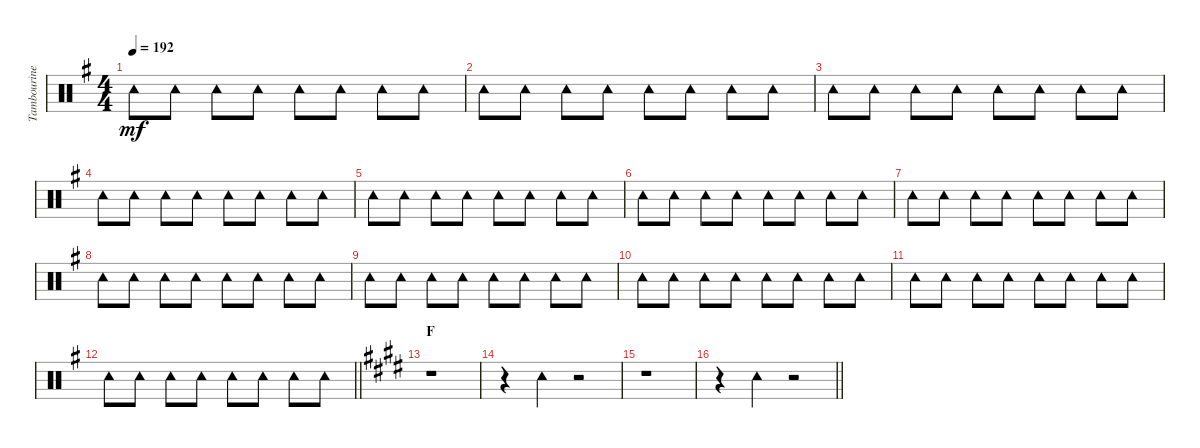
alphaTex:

\track ("Tambourine" "Tambourine") {instrument percussion}
\staff {score}
\articulation defaults
\ts (4 4)
\tempo 192
\clef neutral
\ks g "Tambourine (hit)".8{dy mf} "Tambourine (hit)".8 "Tambourine (hit)".8 "Tambourine (hit)".8 "Tambourine (hit)".8 "Tambourine (hit)".8 "Tambourine (hit)".8 "Tambourine (hit)".8
|
"Tambourine (hit)".8 "Tambourine (hit)".8 "Tambourine (hit)".8 "Tambourine (hit)".8 "Tambourine (hit)".8 "Tambourine (hit)".8 "Tambourine (hit)".8 "Tambourine (hit)".8 |
"Tambourine (hit)".8 "Tambourine (hit)".8 "Tambourine (hit)".8 "Tambourine (hit)".8 "Tambourine (hit)".8 "Tambourine (hit)".8 "Tambourine (hit)".8 "Tambourine (hit)".8 |
"Tambourine (hit)".8 "Tambourine (hit)".8 "Tambourine (hit)".8 "Tambourine (hit)".8 "Tambourine (hit)".8 "Tambourine (hit)".8 "Tambourine (hit)".8 "Tambourine (hit)".8 |
"Tambourine (hit)".8 "Tambourine (hit)".8 "Tambourine (hit)".8 "Tambourine (hit)".8 "Tambourine (hit)".8 "Tambourine (hit)".8 "Tambourine (hit)".8 "Tambourine (hit)".8 |
"Tambourine (hit)".8 "Tambourine (hit)".8 "Tambourine (hit)".8 "Tambourine (hit)".8 "Tambourine (hit)".8 "Tambourine (hit)".8 "Tambourine (hit)".8 "Tambourine (hit)".8 |
"Tambourine (hit)".8 "Tambourine (hit)".8 "Tambourine (hit)".8 "Tambourine (hit)".8 "Tambourine (hit)".8 "Tambourine (hit)".8 "Tambourine (hit)".8 "Tambourine (hit)".8 |
"Tambourine (hit)".8 "Tambourine (hit)".8 "Tambourine (hit)".8 "Tambourine (hit)".8 "Tambourine (hit)".8 "Tambourine (hit)".8 "Tambourine (hit)".8 "Tambourine (hit)".8 |
"Tambourine (hit)".8 "Tambourine (hit)".8 "Tambourine (hit)".8 "Tambourine (hit)".8 "Tambourine (hit)".8 "Tambourine (hit)".8 "Tambourine (hit)".8 "Tambourine (hit)".8 |
"Tambourine (hit)".8 "Tambourine (hit)".8 "Tambourine (hit)".8 "Tambourine (hit)".8 "Tambourine (hit)".8 "Tambourine (hit)".8 "Tambourine (hit)".8 "Tambourine (hit)".8 |
"Tambourine (hit)".8 "Tambourine (hit)".8 "Tambourine (hit)".8 "Tambourine (hit)".8 "Tambourine (hit)".8 "Tambourine (hit)".8 "Tambourine (hit)".8 "Tambourine (hit)".8 |
\barLineRight lightlight "Tambourine (hit)".8 "Tambourine (hit)".8 "Tambourine (hit)".8 "Tambourine (hit)".8 "Tambourine (hit)".8 "Tambourine (hit)".8 "Tambourine (hit)".8 "Tambourine (hit)".8
|
\section ("" "F")
\ks e
r.1 |
r.4 "Tambourine (hit)".4 r.2 |
r.1 |
\barLineRight lightlight
r.4 "Tambourine (hit)".4 r.2
